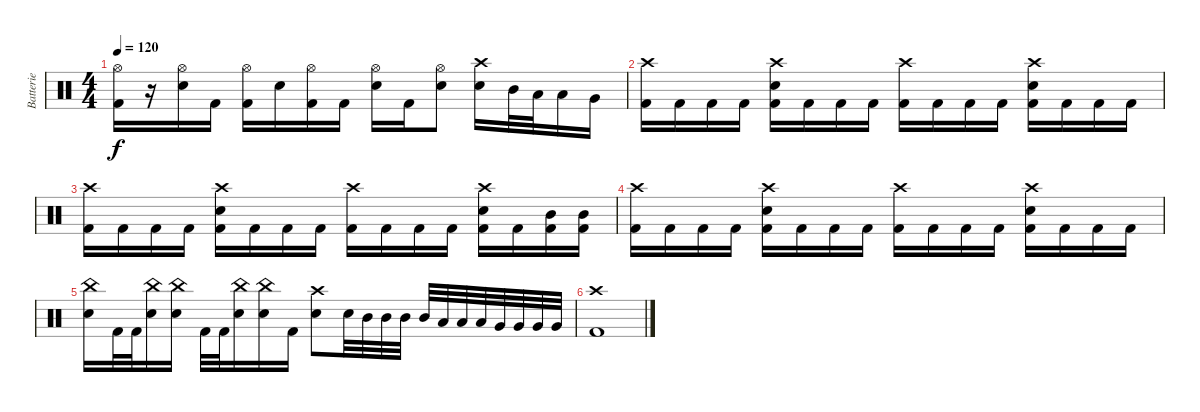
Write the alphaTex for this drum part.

\track ("Batterie" "Batterie") {instrument percussion}
\staff {score}
\articulation defaults
\ts (4 4)
\tempo 120
\clef neutral
\ks c
("Hi-Hat (open)" "Kick (hit) 2").16{dy f} r.16 ("Hi-Hat (open)" "Snare (hit) 2").16 "Kick (hit) 2".16 ("Hi-Hat (open)" "Kick (hit) 2").16 "Snare (hit) 2".16 ("Hi-Hat (open)" "Kick (hit) 2").16 "Kick (hit) 2".16 ("Hi-Hat (open)" "Snare (hit) 2").16 "Kick (hit) 2".16 ("Hi-Hat (open)" "Snare (hit) 2").8 ("Crash high (hit)" "Snare (hit) 2").16 "Mid Tom (hit)".32 "Low Tom (hit)".32 "Low Tom (hit)".16 "Very Low Tom (hit)".16 |
("Crash high (hit)" "Kick (hit) 2").16 "Kick (hit) 2".16 "Kick (hit) 2".16 "Kick (hit) 2".16 ("Crash high (hit)" "Snare (hit) 2" "Kick (hit) 2").16 "Kick (hit) 2".16 "Kick (hit) 2".16 "Kick (hit) 2".16 ("Crash high (hit)" "Kick (hit) 2").16 "Kick (hit) 2".16 "Kick (hit) 2".16 "Kick (hit) 2".16 ("Crash high (hit)" "Snare (hit) 2" "Kick (hit) 2").16 "Kick (hit) 2".16 "Kick (hit) 2".16 "Kick (hit) 2".16 |
("Crash high (hit)" "Kick (hit) 2").16 "Kick (hit) 2".16 "Kick (hit) 2".16 "Kick (hit) 2".16 ("Crash high (hit)" "Snare (hit) 2" "Kick (hit) 2").16 "Kick (hit) 2".16 "Kick (hit) 2".16 "Kick (hit) 2".16 ("Crash high (hit)" "Kick (hit) 2").16 "Kick (hit) 2".16 "Kick (hit) 2".16 "Kick (hit) 2".16 ("Crash high (hit)" "Snare (hit) 2" "Kick (hit) 2").16 "Kick (hit) 2".16 ("Mid Tom (hit)" "Kick (hit) 2").16 ("Mid Tom (hit)" "Kick (hit) 2").16 |
("Crash high (hit)" "Kick (hit) 2").16 "Kick (hit) 2".16 "Kick (hit) 2".16 "Kick (hit) 2".16 ("Crash high (hit)" "Snare (hit) 2" "Kick (hit) 2").16 "Kick (hit) 2".16 "Kick (hit) 2".16 "Kick (hit) 2".16 ("Crash high (hit)" "Kick (hit) 2").16 "Kick (hit) 2".16 "Kick (hit) 2".16 "Kick (hit) 2".16 ("Crash high (hit)" "Snare (hit) 2" "Kick (hit) 2").16 "Kick (hit) 2".16 "Kick (hit) 2".16 "Kick (hit) 2".16 |
("China (hit)" "Snare (hit) 2").16 "Kick (hit) 2".32 "Kick (hit) 2".32 ("China (hit)" "Snare (hit) 2").16 ("China (hit)" "Snare (hit) 2").16 "Kick (hit) 2".32 "Kick (hit) 2".32 ("China (hit)" "Snare (hit) 2").16 ("China (hit)" "Snare (hit) 2").16 "Kick (hit) 2".16 ("Crash high (hit)" "Snare (hit) 2").8 "Snare (hit) 2".32 "Mid Tom (hit)".32 "Mid Tom (hit)".32 "Mid Tom (hit)".32 "Mid Tom (hit)".32 "Low Tom (hit)".32 "Low Tom (hit)".32 "Low Tom (hit)".32 "Very Low Tom (hit)".32 "Very Low Tom (hit)".32 "Very Low Tom (hit)".32 "Very Low Tom (hit)".32 |
("Crash high (hit)" "Kick (hit) 2").1
